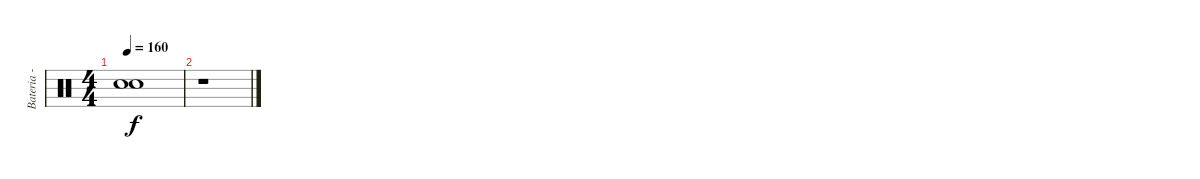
\track ("Bateria - Larzon" "Bateria - ") {instrument percussion}
\staff {score}
\articulation defaults
\ts (4 4)
\tempo 160
\clef neutral
\ks c
("Snare (hit)"{t} "Snare (hit)"{t}).1{dy f} |
r.1
